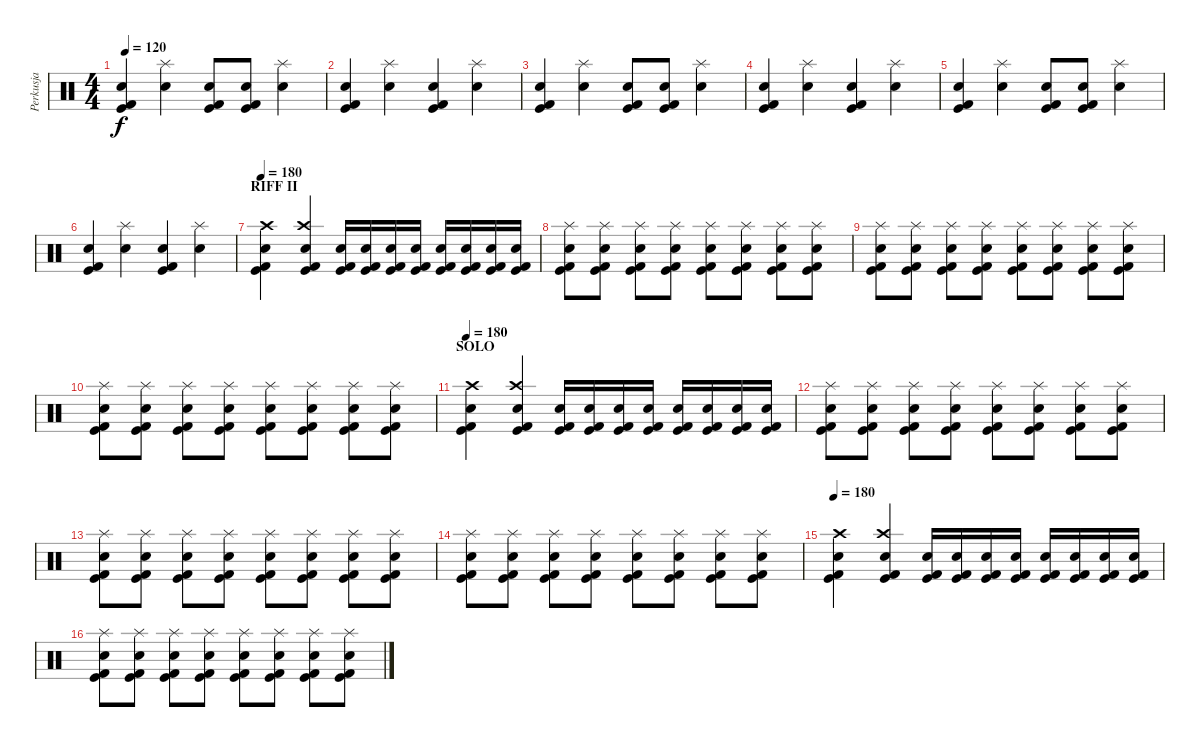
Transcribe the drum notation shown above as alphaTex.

\track ("Perkusja" "Perkusja") {instrument percussion}
\staff {score}
\articulation defaults
\ts (4 4)
\tempo 120
\clef neutral
\ks c
("Snare (hit) 2" "Kick (hit)" "Kick (hit) 2").4{dy f} ("Snare (hit) 2" "Splash (hit)").4 ("Snare (hit) 2" "Kick (hit)" "Kick (hit) 2").8 ("Snare (hit) 2" "Kick (hit)" "Kick (hit) 2").8 ("Snare (hit) 2" "Splash (hit)").4 |
("Snare (hit) 2" "Kick (hit)" "Kick (hit) 2").4 ("Snare (hit) 2" "Splash (hit)").4 ("Snare (hit) 2" "Kick (hit)" "Kick (hit) 2").4 ("Snare (hit) 2" "Splash (hit)").4 |
("Snare (hit) 2" "Kick (hit)" "Kick (hit) 2").4 ("Snare (hit) 2" "Splash (hit)").4 ("Snare (hit) 2" "Kick (hit)" "Kick (hit) 2").8 ("Snare (hit) 2" "Kick (hit)" "Kick (hit) 2").8 ("Snare (hit) 2" "Splash (hit)").4 |
("Snare (hit) 2" "Kick (hit)" "Kick (hit) 2").4 ("Snare (hit) 2" "Splash (hit)").4 ("Snare (hit) 2" "Kick (hit)" "Kick (hit) 2").4 ("Snare (hit) 2" "Splash (hit)").4 |
("Snare (hit) 2" "Kick (hit)" "Kick (hit) 2").4 ("Snare (hit) 2" "Splash (hit)").4 ("Snare (hit) 2" "Kick (hit)" "Kick (hit) 2").8 ("Snare (hit) 2" "Kick (hit)" "Kick (hit) 2").8 ("Snare (hit) 2" "Splash (hit)").4 |
("Snare (hit) 2" "Kick (hit)" "Kick (hit) 2").4 ("Snare (hit) 2" "Splash (hit)").4 ("Snare (hit) 2" "Kick (hit)" "Kick (hit) 2").4 ("Snare (hit) 2" "Splash (hit)").4 |
\section ("" "RIFF II")
\tempo 180
("Crash high (hit)" "Snare (hit) 2" "Kick (hit) 2" "Kick (hit)").4 ("Crash high (hit)" "Electric Snare (hit)" "Kick (hit) 2" "Kick (hit)").4 ("Snare (hit) 2" "Kick (hit) 2" "Kick (hit)").16 ("Snare (hit) 2" "Kick (hit) 2" "Kick (hit)").16 ("Snare (hit) 2" "Kick (hit) 2" "Kick (hit)").16 ("Snare (hit) 2" "Kick (hit) 2" "Kick (hit)").16 ("Snare (hit) 2" "Kick (hit) 2" "Kick (hit)").16 ("Snare (hit) 2" "Kick (hit) 2" "Kick (hit)").16 ("Snare (hit) 2" "Kick (hit) 2" "Kick (hit)").16 ("Snare (hit) 2" "Kick (hit) 2" "Kick (hit)").16 |
("Kick (hit)" "Kick (hit) 2" "Snare (hit) 2" "Splash (hit)").8 ("Kick (hit)" "Kick (hit) 2" "Snare (hit) 2" "Splash (hit)").8 ("Kick (hit)" "Kick (hit) 2" "Snare (hit) 2" "Splash (hit)").8 ("Kick (hit)" "Kick (hit) 2" "Snare (hit) 2" "Splash (hit)").8 ("Kick (hit)" "Kick (hit) 2" "Snare (hit) 2" "Splash (hit)").8 ("Kick (hit)" "Kick (hit) 2" "Snare (hit) 2" "Splash (hit)").8 ("Kick (hit)" "Kick (hit) 2" "Snare (hit) 2" "Splash (hit)").8 ("Kick (hit)" "Kick (hit) 2" "Snare (hit) 2" "Splash (hit)").8 |
("Kick (hit)" "Kick (hit) 2" "Snare (hit) 2" "Splash (hit)").8 ("Kick (hit)" "Kick (hit) 2" "Snare (hit) 2" "Splash (hit)").8 ("Kick (hit)" "Kick (hit) 2" "Snare (hit) 2" "Splash (hit)").8 ("Kick (hit)" "Kick (hit) 2" "Snare (hit) 2" "Splash (hit)").8 ("Kick (hit)" "Kick (hit) 2" "Snare (hit) 2" "Splash (hit)").8 ("Kick (hit)" "Kick (hit) 2" "Snare (hit) 2" "Splash (hit)").8 ("Kick (hit)" "Kick (hit) 2" "Snare (hit) 2" "Splash (hit)").8 ("Kick (hit)" "Kick (hit) 2" "Snare (hit) 2" "Splash (hit)").8 |
("Kick (hit)" "Kick (hit) 2" "Snare (hit) 2" "Splash (hit)").8 ("Kick (hit)" "Kick (hit) 2" "Snare (hit) 2" "Splash (hit)").8 ("Kick (hit)" "Kick (hit) 2" "Snare (hit) 2" "Splash (hit)").8 ("Kick (hit)" "Kick (hit) 2" "Snare (hit) 2" "Splash (hit)").8 ("Kick (hit)" "Kick (hit) 2" "Snare (hit) 2" "Splash (hit)").8 ("Kick (hit)" "Kick (hit) 2" "Snare (hit) 2" "Splash (hit)").8 ("Kick (hit)" "Kick (hit) 2" "Snare (hit) 2" "Splash (hit)").8 ("Kick (hit)" "Kick (hit) 2" "Snare (hit) 2" "Splash (hit)").8 |
\section ("" "SOLO")
\tempo 180
("Crash high (hit)" "Snare (hit) 2" "Kick (hit) 2" "Kick (hit)").4 ("Crash high (hit)" "Electric Snare (hit)" "Kick (hit) 2" "Kick (hit)").4 ("Snare (hit) 2" "Kick (hit) 2" "Kick (hit)").16 ("Snare (hit) 2" "Kick (hit) 2" "Kick (hit)").16 ("Snare (hit) 2" "Kick (hit) 2" "Kick (hit)").16 ("Snare (hit) 2" "Kick (hit) 2" "Kick (hit)").16 ("Snare (hit) 2" "Kick (hit) 2" "Kick (hit)").16 ("Snare (hit) 2" "Kick (hit) 2" "Kick (hit)").16 ("Snare (hit) 2" "Kick (hit) 2" "Kick (hit)").16 ("Snare (hit) 2" "Kick (hit) 2" "Kick (hit)").16 |
("Kick (hit)" "Kick (hit) 2" "Snare (hit) 2" "Splash (hit)").8 ("Kick (hit)" "Kick (hit) 2" "Snare (hit) 2" "Splash (hit)").8 ("Kick (hit)" "Kick (hit) 2" "Snare (hit) 2" "Splash (hit)").8 ("Kick (hit)" "Kick (hit) 2" "Snare (hit) 2" "Splash (hit)").8 ("Kick (hit)" "Kick (hit) 2" "Snare (hit) 2" "Splash (hit)").8 ("Kick (hit)" "Kick (hit) 2" "Snare (hit) 2" "Splash (hit)").8 ("Kick (hit)" "Kick (hit) 2" "Snare (hit) 2" "Splash (hit)").8 ("Kick (hit)" "Kick (hit) 2" "Snare (hit) 2" "Splash (hit)").8 |
("Kick (hit)" "Kick (hit) 2" "Snare (hit) 2" "Splash (hit)").8 ("Kick (hit)" "Kick (hit) 2" "Snare (hit) 2" "Splash (hit)").8 ("Kick (hit)" "Kick (hit) 2" "Snare (hit) 2" "Splash (hit)").8 ("Kick (hit)" "Kick (hit) 2" "Snare (hit) 2" "Splash (hit)").8 ("Kick (hit)" "Kick (hit) 2" "Snare (hit) 2" "Splash (hit)").8 ("Kick (hit)" "Kick (hit) 2" "Snare (hit) 2" "Splash (hit)").8 ("Kick (hit)" "Kick (hit) 2" "Snare (hit) 2" "Splash (hit)").8 ("Kick (hit)" "Kick (hit) 2" "Snare (hit) 2" "Splash (hit)").8 |
("Kick (hit)" "Kick (hit) 2" "Snare (hit) 2" "Splash (hit)").8 ("Kick (hit)" "Kick (hit) 2" "Snare (hit) 2" "Splash (hit)").8 ("Kick (hit)" "Kick (hit) 2" "Snare (hit) 2" "Splash (hit)").8 ("Kick (hit)" "Kick (hit) 2" "Snare (hit) 2" "Splash (hit)").8 ("Kick (hit)" "Kick (hit) 2" "Snare (hit) 2" "Splash (hit)").8 ("Kick (hit)" "Kick (hit) 2" "Snare (hit) 2" "Splash (hit)").8 ("Kick (hit)" "Kick (hit) 2" "Snare (hit) 2" "Splash (hit)").8 ("Kick (hit)" "Kick (hit) 2" "Snare (hit) 2" "Splash (hit)").8 |
\tempo 180
("Crash high (hit)" "Snare (hit) 2" "Kick (hit) 2" "Kick (hit)").4 ("Crash high (hit)" "Electric Snare (hit)" "Kick (hit) 2" "Kick (hit)").4 ("Snare (hit) 2" "Kick (hit) 2" "Kick (hit)").16 ("Snare (hit) 2" "Kick (hit) 2" "Kick (hit)").16 ("Snare (hit) 2" "Kick (hit) 2" "Kick (hit)").16 ("Snare (hit) 2" "Kick (hit) 2" "Kick (hit)").16 ("Snare (hit) 2" "Kick (hit) 2" "Kick (hit)").16 ("Snare (hit) 2" "Kick (hit) 2" "Kick (hit)").16 ("Snare (hit) 2" "Kick (hit) 2" "Kick (hit)").16 ("Snare (hit) 2" "Kick (hit) 2" "Kick (hit)").16 |
("Kick (hit)" "Kick (hit) 2" "Snare (hit) 2" "Splash (hit)").8 ("Kick (hit)" "Kick (hit) 2" "Snare (hit) 2" "Splash (hit)").8 ("Kick (hit)" "Kick (hit) 2" "Snare (hit) 2" "Splash (hit)").8 ("Kick (hit)" "Kick (hit) 2" "Snare (hit) 2" "Splash (hit)").8 ("Kick (hit)" "Kick (hit) 2" "Snare (hit) 2" "Splash (hit)").8 ("Kick (hit)" "Kick (hit) 2" "Snare (hit) 2" "Splash (hit)").8 ("Kick (hit)" "Kick (hit) 2" "Snare (hit) 2" "Splash (hit)").8 ("Kick (hit)" "Kick (hit) 2" "Snare (hit) 2" "Splash (hit)").8
